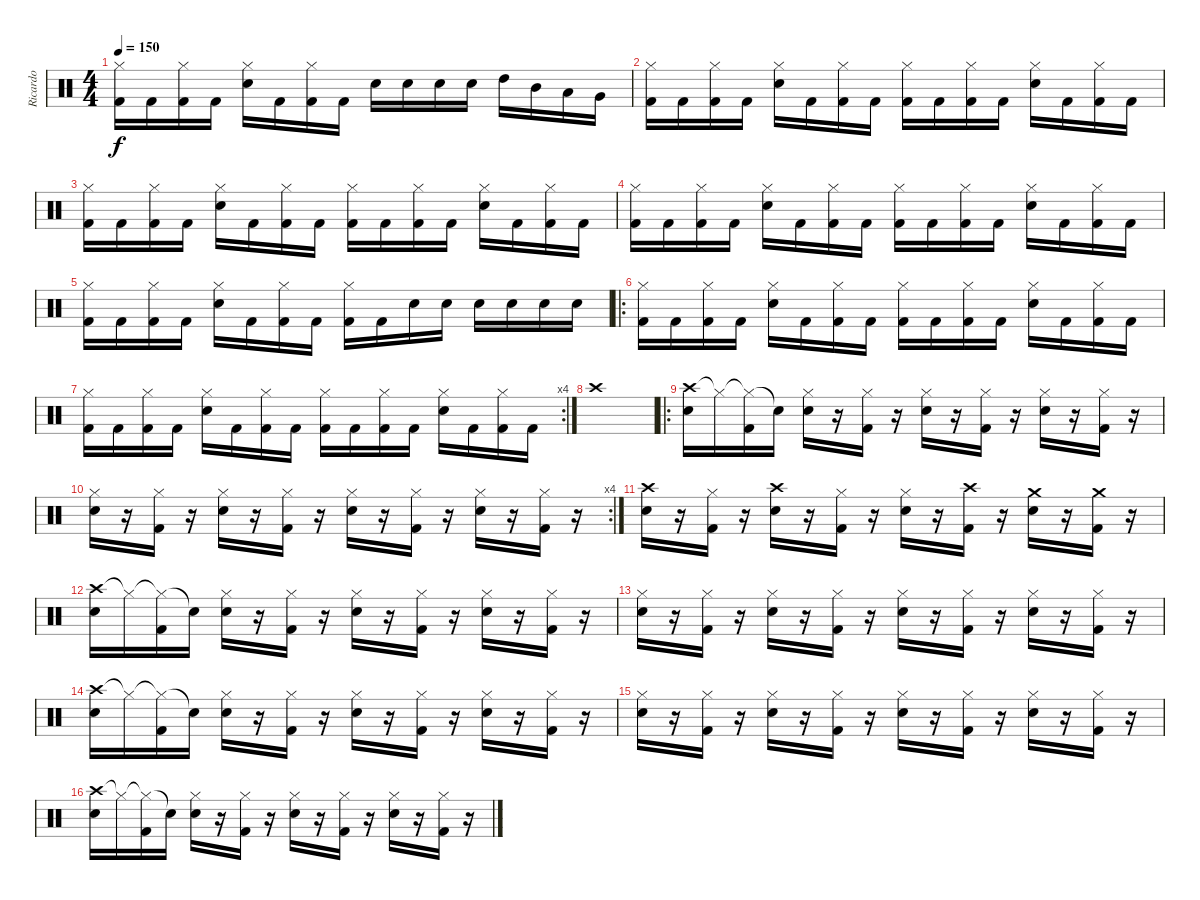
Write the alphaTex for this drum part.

\track ("Ricardo" "Ricardo") {instrument percussion}
\staff {score}
\articulation defaults
\ts (4 4)
\tempo 150
\clef neutral
\ks c
("Hi-Hat (closed)" "Kick (hit) 2").16{dy f} "Kick (hit) 2".16 ("Hi-Hat (closed)" "Kick (hit) 2").16 "Kick (hit) 2".16 ("Hi-Hat (closed)" "Snare (hit) 2").16 "Kick (hit) 2".16 ("Hi-Hat (closed)" "Kick (hit) 2").16 "Kick (hit) 2".16 "Snare (hit) 2".16 "Snare (hit) 2".16 "Snare (hit) 2".16 "Snare (hit) 2".16 "High Tom (hit)".16 "Mid Tom (hit)".16 "Low Tom (hit)".16 "Very Low Tom (hit)".16 |
("Hi-Hat (closed)" "Kick (hit) 2").16 "Kick (hit) 2".16 ("Hi-Hat (closed)" "Kick (hit) 2").16 "Kick (hit) 2".16 ("Hi-Hat (closed)" "Snare (hit) 2").16 "Kick (hit) 2".16 ("Hi-Hat (closed)" "Kick (hit) 2").16 "Kick (hit) 2".16 ("Hi-Hat (closed)" "Kick (hit) 2").16 "Kick (hit) 2".16 ("Hi-Hat (closed)" "Kick (hit) 2").16 "Kick (hit) 2".16 ("Hi-Hat (closed)" "Snare (hit) 2").16 "Kick (hit) 2".16 ("Hi-Hat (closed)" "Kick (hit) 2").16 "Kick (hit) 2".16 |
("Hi-Hat (closed)" "Kick (hit) 2").16 "Kick (hit) 2".16 ("Hi-Hat (closed)" "Kick (hit) 2").16 "Kick (hit) 2".16 ("Hi-Hat (closed)" "Snare (hit) 2").16 "Kick (hit) 2".16 ("Hi-Hat (closed)" "Kick (hit) 2").16 "Kick (hit) 2".16 ("Hi-Hat (closed)" "Kick (hit) 2").16 "Kick (hit) 2".16 ("Hi-Hat (closed)" "Kick (hit) 2").16 "Kick (hit) 2".16 ("Hi-Hat (closed)" "Snare (hit) 2").16 "Kick (hit) 2".16 ("Hi-Hat (closed)" "Kick (hit) 2").16 "Kick (hit) 2".16 |
("Hi-Hat (closed)" "Kick (hit) 2").16 "Kick (hit) 2".16 ("Hi-Hat (closed)" "Kick (hit) 2").16 "Kick (hit) 2".16 ("Hi-Hat (closed)" "Snare (hit) 2").16 "Kick (hit) 2".16 ("Hi-Hat (closed)" "Kick (hit) 2").16 "Kick (hit) 2".16 ("Hi-Hat (closed)" "Kick (hit) 2").16 "Kick (hit) 2".16 ("Hi-Hat (closed)" "Kick (hit) 2").16 "Kick (hit) 2".16 ("Hi-Hat (closed)" "Snare (hit) 2").16 "Kick (hit) 2".16 ("Hi-Hat (closed)" "Kick (hit) 2").16 "Kick (hit) 2".16 |
("Hi-Hat (closed)" "Kick (hit) 2").16 "Kick (hit) 2".16 ("Hi-Hat (closed)" "Kick (hit) 2").16 "Kick (hit) 2".16 ("Hi-Hat (closed)" "Snare (hit) 2").16 "Kick (hit) 2".16 ("Hi-Hat (closed)" "Kick (hit) 2").16 "Kick (hit) 2".16 ("Hi-Hat (closed)" "Kick (hit) 2").16 "Kick (hit) 2".16 "Snare (hit) 2".16 "Snare (hit) 2".16 "Snare (hit) 2".16 "Snare (hit) 2".16 "Snare (hit) 2".16 "Snare (hit) 2".16 |
\ro
("Hi-Hat (closed)" "Kick (hit) 2").16 "Kick (hit) 2".16 ("Hi-Hat (closed)" "Kick (hit) 2").16 "Kick (hit) 2".16 ("Hi-Hat (closed)" "Snare (hit) 2").16 "Kick (hit) 2".16 ("Hi-Hat (closed)" "Kick (hit) 2").16 "Kick (hit) 2".16 ("Hi-Hat (closed)" "Kick (hit) 2").16 "Kick (hit) 2".16 ("Hi-Hat (closed)" "Kick (hit) 2").16 "Kick (hit) 2".16 ("Hi-Hat (closed)" "Snare (hit) 2").16 "Kick (hit) 2".16 ("Hi-Hat (closed)" "Kick (hit) 2").16 "Kick (hit) 2".16 |
\rc 4
("Hi-Hat (closed)" "Kick (hit) 2").16 "Kick (hit) 2".16 ("Hi-Hat (closed)" "Kick (hit) 2").16 "Kick (hit) 2".16 ("Hi-Hat (closed)" "Snare (hit) 2").16 "Kick (hit) 2".16 ("Hi-Hat (closed)" "Kick (hit) 2").16 "Kick (hit) 2".16 ("Hi-Hat (closed)" "Kick (hit) 2").16 "Kick (hit) 2".16 ("Hi-Hat (closed)" "Kick (hit) 2").16 "Kick (hit) 2".16 ("Hi-Hat (closed)" "Snare (hit) 2").16 "Kick (hit) 2".16 ("Hi-Hat (closed)" "Kick (hit) 2").16 "Kick (hit) 2".16 |
"Crash high (hit)".1 |
\ro
("Crash high (hit)" "Snare (hit) 2").16 "Hi-Hat (closed)"{t}.16 ("Hi-Hat (closed)"{t} "Kick (hit) 2").16 "Snare (hit)"{t}.16 ("Hi-Hat (closed)" "Snare (hit) 2").16 r.16 ("Hi-Hat (closed)" "Kick (hit) 2").16 r.16 ("Hi-Hat (closed)" "Snare (hit) 2").16 r.16 ("Hi-Hat (closed)" "Kick (hit) 2").16 r.16 ("Hi-Hat (closed)" "Snare (hit) 2").16 r.16 ("Hi-Hat (closed)" "Kick (hit) 2").16 r.16 |
\rc 4
("Hi-Hat (closed)" "Snare (hit) 2").16 r.16 ("Hi-Hat (closed)" "Kick (hit) 2").16 r.16 ("Hi-Hat (closed)" "Snare (hit) 2").16 r.16 ("Hi-Hat (closed)" "Kick (hit) 2").16 r.16 ("Hi-Hat (closed)" "Snare (hit) 2").16 r.16 ("Hi-Hat (closed)" "Kick (hit) 2").16 r.16 ("Hi-Hat (closed)" "Snare (hit) 2").16 r.16 ("Hi-Hat (closed)" "Kick (hit) 2").16 r.16 |
("Crash high (hit)" "Snare (hit) 2").16 r.16 ("Hi-Hat (closed)" "Kick (hit) 2").16 r.16 ("Crash high (hit)" "Snare (hit) 2").16 r.16 ("Hi-Hat (closed)" "Kick (hit) 2").16 r.16 ("Hi-Hat (closed)" "Snare (hit) 2").16 r.16 ("Crash high (hit)" "Kick (hit) 2").16 r.16 ("Crash medium (hit)" "Snare (hit) 2").16 r.16 ("Crash medium (hit)" "Kick (hit) 2").16 r.16 |
("Crash high (hit)" "Snare (hit) 2").16 "Hi-Hat (closed)"{t}.16 ("Hi-Hat (closed)"{t} "Kick (hit) 2").16 "Snare (hit)"{t}.16 ("Hi-Hat (closed)" "Snare (hit) 2").16 r.16 ("Hi-Hat (closed)" "Kick (hit) 2").16 r.16 ("Hi-Hat (closed)" "Snare (hit) 2").16 r.16 ("Hi-Hat (closed)" "Kick (hit) 2").16 r.16 ("Hi-Hat (closed)" "Snare (hit) 2").16 r.16 ("Hi-Hat (closed)" "Kick (hit) 2").16 r.16 |
("Hi-Hat (closed)" "Snare (hit) 2").16 r.16 ("Hi-Hat (closed)" "Kick (hit) 2").16 r.16 ("Hi-Hat (closed)" "Snare (hit) 2").16 r.16 ("Hi-Hat (closed)" "Kick (hit) 2").16 r.16 ("Hi-Hat (closed)" "Snare (hit) 2").16 r.16 ("Hi-Hat (closed)" "Kick (hit) 2").16 r.16 ("Hi-Hat (closed)" "Snare (hit) 2").16 r.16 ("Hi-Hat (closed)" "Kick (hit) 2").16 r.16 |
("Crash high (hit)" "Snare (hit) 2").16 "Hi-Hat (closed)"{t}.16 ("Hi-Hat (closed)"{t} "Kick (hit) 2").16 "Snare (hit)"{t}.16 ("Hi-Hat (closed)" "Snare (hit) 2").16 r.16 ("Hi-Hat (closed)" "Kick (hit) 2").16 r.16 ("Hi-Hat (closed)" "Snare (hit) 2").16 r.16 ("Hi-Hat (closed)" "Kick (hit) 2").16 r.16 ("Hi-Hat (closed)" "Snare (hit) 2").16 r.16 ("Hi-Hat (closed)" "Kick (hit) 2").16 r.16 |
("Hi-Hat (closed)" "Snare (hit) 2").16 r.16 ("Hi-Hat (closed)" "Kick (hit) 2").16 r.16 ("Hi-Hat (closed)" "Snare (hit) 2").16 r.16 ("Hi-Hat (closed)" "Kick (hit) 2").16 r.16 ("Hi-Hat (closed)" "Snare (hit) 2").16 r.16 ("Hi-Hat (closed)" "Kick (hit) 2").16 r.16 ("Hi-Hat (closed)" "Snare (hit) 2").16 r.16 ("Hi-Hat (closed)" "Kick (hit) 2").16 r.16 |
("Crash high (hit)" "Snare (hit) 2").16 "Hi-Hat (closed)"{t}.16 ("Hi-Hat (closed)"{t} "Kick (hit) 2").16 "Snare (hit)"{t}.16 ("Hi-Hat (closed)" "Snare (hit) 2").16 r.16 ("Hi-Hat (closed)" "Kick (hit) 2").16 r.16 ("Hi-Hat (closed)" "Snare (hit) 2").16 r.16 ("Hi-Hat (closed)" "Kick (hit) 2").16 r.16 ("Hi-Hat (closed)" "Snare (hit) 2").16 r.16 ("Hi-Hat (closed)" "Kick (hit) 2").16 r.16
